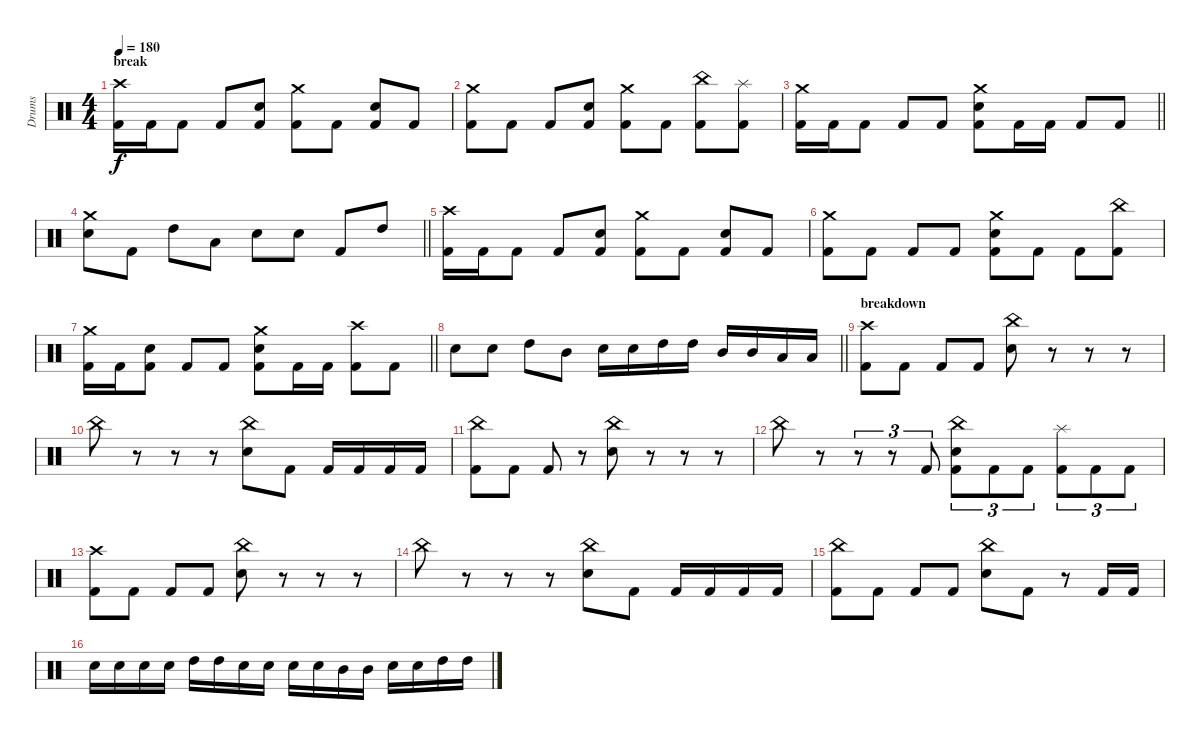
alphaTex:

\track ("Drums" "Drums") {instrument percussion}
\staff {score}
\articulation defaults
\ts (4 4)
\section ("" "break")
\tempo 180
\clef neutral
\ks c
("Crash high (hit)" "Kick (hit) 2").16{dy f} "Kick (hit) 2".16 "Kick (hit) 2".8 "Kick (hit) 2".8 ("Electric Snare (hit)" "Kick (hit) 2").8 ("Crash medium (hit)" "Kick (hit) 2").8 "Kick (hit) 2".8 ("Electric Snare (hit)" "Kick (hit) 2").8 "Kick (hit) 2".8 |
("Crash medium (hit)" "Kick (hit) 2").8 "Kick (hit) 2".8 "Kick (hit) 2".8 ("Electric Snare (hit)" "Kick (hit) 2").8 ("Crash medium (hit)" "Kick (hit) 2").8 "Kick (hit) 2".8 ("China (hit)" "Kick (hit) 2").8 ("Splash (hit)" "Kick (hit) 2").8 |
\barLineRight lightlight
("Crash medium (hit)" "Kick (hit) 2").16 "Kick (hit) 2".16 "Kick (hit) 2".8 "Kick (hit) 2".8 "Kick (hit) 2".8 ("Crash medium (hit)" "Electric Snare (hit)" "Kick (hit) 2").8 "Kick (hit) 2".16 "Kick (hit) 2".16 "Kick (hit) 2".8 "Kick (hit) 2".8 |
\barLineRight lightlight
("Crash medium (hit)" "Electric Snare (hit)").8 "Kick (hit) 2".8 "High Tom (hit)".8 "Low Tom (hit)".8 "Electric Snare (hit)".8 "Electric Snare (hit)".8 "Kick (hit) 2".8 "High Tom (hit)".8 |
("Crash high (hit)" "Kick (hit) 2").16 "Kick (hit) 2".16 "Kick (hit) 2".8 "Kick (hit) 2".8 ("Electric Snare (hit)" "Kick (hit) 2").8 ("Crash medium (hit)" "Kick (hit) 2").8 "Kick (hit) 2".8 ("Electric Snare (hit)" "Kick (hit) 2").8 "Kick (hit) 2".8 |
("Crash medium (hit)" "Kick (hit) 2").8 "Kick (hit) 2".8 "Kick (hit) 2".8 "Kick (hit) 2".8 ("Crash medium (hit)" "Electric Snare (hit)" "Kick (hit) 2").8 "Kick (hit) 2".8 "Kick (hit) 2".8 ("China (hit)" "Kick (hit) 2").8 |
\barLineRight lightlight
("Crash medium (hit)" "Kick (hit) 2").16 "Kick (hit) 2".16 ("Electric Snare (hit)" "Kick (hit) 2").8 "Kick (hit) 2".8 "Kick (hit) 2".8 ("Crash medium (hit)" "Electric Snare (hit)" "Kick (hit) 2").8 "Kick (hit) 2".16 "Kick (hit) 2".16 ("Crash high (hit)" "Kick (hit) 2").8 "Kick (hit) 2".8 |
\barLineRight lightlight "Electric Snare (hit)".8 "Electric Snare (hit)".8 "High Tom (hit)".8 "Mid Tom (hit)".8 "Electric Snare (hit)".16 "Electric Snare (hit)".16 "High Tom (hit)".16 "High Tom (hit)".16 "Mid Tom (hit)".16 "Mid Tom (hit)".16 "Low Tom (hit)".16 "Low Tom (hit)".16
|
\section ("" "breakdown")
("Crash high (hit)" "Kick (hit) 2").8 "Kick (hit) 2".8 "Kick (hit) 2".8 "Kick (hit) 2".8 ("China (hit)" "Electric Snare (hit)").8 r.8 r.8 r.8 |
"China (hit)".8 r.8 r.8 r.8 ("China (hit)" "Electric Snare (hit)").8 "Kick (hit) 2".8 "Kick (hit) 2".16 "Kick (hit) 2".16 "Kick (hit) 2".16 "Kick (hit) 2".16 |
("China (hit)" "Kick (hit) 2").8 "Kick (hit) 2".8 "Kick (hit) 2".8 r.8 ("China (hit)" "Electric Snare (hit)").8 r.8 r.8 r.8 |
"China (hit)".8 r.8 r.8{tu (3 2)} r.8{tu (3 2)} "Kick (hit) 2".8{tu (3 2)} ("China (hit)" "Electric Snare (hit)" "Kick (hit) 2").8{tu (3 2)} "Kick (hit) 2".8{tu (3 2)} "Kick (hit) 2".8{tu (3 2)} ("Splash (hit)" "Kick (hit) 2").8{tu (3 2)} "Kick (hit) 2".8{tu (3 2)} "Kick (hit) 2".8{tu (3 2)} |
("Crash high (hit)" "Kick (hit) 2").8 "Kick (hit) 2".8 "Kick (hit) 2".8 "Kick (hit) 2".8 ("China (hit)" "Electric Snare (hit)").8 r.8 r.8 r.8 |
"China (hit)".8 r.8 r.8 r.8 ("China (hit)" "Electric Snare (hit)").8 "Kick (hit) 2".8 "Kick (hit) 2".16 "Kick (hit) 2".16 "Kick (hit) 2".16 "Kick (hit) 2".16 |
("China (hit)" "Kick (hit) 2").8 "Kick (hit) 2".8 "Kick (hit) 2".8 "Kick (hit) 2".8 ("China (hit)" "Electric Snare (hit)").8 "Kick (hit) 2".8 r.8 "Kick (hit) 2".16 "Kick (hit) 2".16 |
"Electric Snare (hit)".16 "Electric Snare (hit)".16 "Electric Snare (hit)".16 "Electric Snare (hit)".16 "High Tom (hit)".16 "High Tom (hit)".16 "Electric Snare (hit)".16 "Electric Snare (hit)".16 "Electric Snare (hit)".16 "Electric Snare (hit)".16 "Mid Tom (hit)".16 "Mid Tom (hit)".16 "Electric Snare (hit)".16 "Electric Snare (hit)".16 "High Tom (hit)".16 "High Tom (hit)".16
